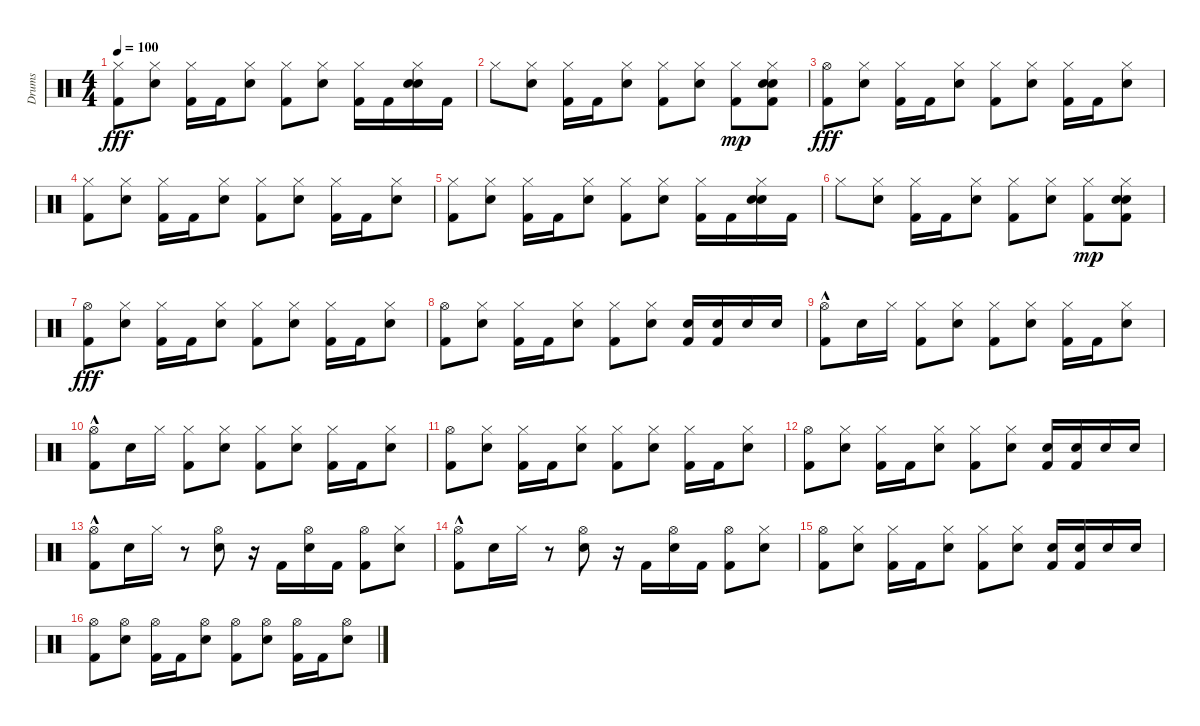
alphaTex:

\track ("Drums" "Drums") {instrument percussion}
\staff {score}
\articulation defaults
\ts (4 4)
\tempo 100
\clef neutral
\ks c
("Kick (hit) 2" "Hi-Hat (closed)").8{dy fff} ("Hi-Hat (closed)" "Electric Snare (hit)").8 ("Hi-Hat (closed)" "Kick (hit) 2").16 "Kick (hit) 2".16 ("Hi-Hat (closed)" "Electric Snare (hit)").8 ("Kick (hit) 2" "Hi-Hat (closed)").8 ("Hi-Hat (closed)" "Electric Snare (hit)").8 ("Kick (hit) 2" "Hi-Hat (closed)").16 "Kick (hit) 2".16 ("Hi-Hat (closed)" "Electric Snare (hit)" "Snare (hit) 2").16 "Kick (hit) 2".16 |
"Hi-Hat (closed)".8 ("Hi-Hat (closed)" "Electric Snare (hit)").8 ("Hi-Hat (closed)" "Kick (hit) 2").16 "Kick (hit) 2".16 ("Hi-Hat (closed)" "Electric Snare (hit)").8 ("Kick (hit) 2" "Hi-Hat (closed)").8 ("Hi-Hat (closed)" "Electric Snare (hit)").8 ("Hi-Hat (closed)" "Kick (hit) 2").8{dy mp} ("Hi-Hat (closed)" "Electric Snare (hit)" "Snare (hit) 2" "Kick (hit) 2").8 |
("Kick (hit) 2" "Hi-Hat (open)").8{dy fff} ("Hi-Hat (closed)" "Electric Snare (hit)").8 ("Hi-Hat (closed)" "Kick (hit) 2").16 "Kick (hit) 2".16 ("Hi-Hat (closed)" "Electric Snare (hit)").8 ("Kick (hit) 2" "Hi-Hat (closed)").8 ("Hi-Hat (closed)" "Electric Snare (hit)").8 ("Kick (hit) 2" "Hi-Hat (closed)").16 "Kick (hit) 2".16 ("Hi-Hat (closed)" "Electric Snare (hit)").8 |
("Kick (hit) 2" "Hi-Hat (closed)").8 ("Hi-Hat (closed)" "Electric Snare (hit)").8 ("Hi-Hat (closed)" "Kick (hit) 2").16 "Kick (hit) 2".16 ("Hi-Hat (closed)" "Electric Snare (hit)").8 ("Kick (hit) 2" "Hi-Hat (closed)").8 ("Hi-Hat (closed)" "Electric Snare (hit)").8 ("Kick (hit) 2" "Hi-Hat (closed)").16 "Kick (hit) 2".16 ("Hi-Hat (closed)" "Electric Snare (hit)").8 |
("Kick (hit) 2" "Hi-Hat (closed)").8 ("Hi-Hat (closed)" "Electric Snare (hit)").8 ("Hi-Hat (closed)" "Kick (hit) 2").16 "Kick (hit) 2".16 ("Hi-Hat (closed)" "Electric Snare (hit)").8 ("Kick (hit) 2" "Hi-Hat (closed)").8 ("Hi-Hat (closed)" "Electric Snare (hit)").8 ("Kick (hit) 2" "Hi-Hat (closed)").16 "Kick (hit) 2".16 ("Hi-Hat (closed)" "Electric Snare (hit)" "Snare (hit) 2").16 "Kick (hit) 2".16 |
"Hi-Hat (closed)".8 ("Hi-Hat (closed)" "Electric Snare (hit)").8 ("Hi-Hat (closed)" "Kick (hit) 2").16 "Kick (hit) 2".16 ("Hi-Hat (closed)" "Electric Snare (hit)").8 ("Kick (hit) 2" "Hi-Hat (closed)").8 ("Hi-Hat (closed)" "Electric Snare (hit)").8 ("Hi-Hat (closed)" "Kick (hit) 2").8{dy mp} ("Hi-Hat (closed)" "Electric Snare (hit)" "Snare (hit) 2" "Kick (hit) 2").8 |
("Kick (hit) 2" "Hi-Hat (open)").8{dy fff} ("Hi-Hat (closed)" "Electric Snare (hit)").8 ("Hi-Hat (closed)" "Kick (hit) 2").16 "Kick (hit) 2".16 ("Hi-Hat (closed)" "Electric Snare (hit)").8 ("Kick (hit) 2" "Hi-Hat (closed)").8 ("Hi-Hat (closed)" "Electric Snare (hit)").8 ("Kick (hit) 2" "Hi-Hat (closed)").16 "Kick (hit) 2".16 ("Hi-Hat (closed)" "Electric Snare (hit)").8 |
("Kick (hit) 2" "Hi-Hat (open)").8 ("Hi-Hat (closed)" "Electric Snare (hit)").8 ("Hi-Hat (closed)" "Kick (hit) 2").16 "Kick (hit) 2".16 ("Hi-Hat (closed)" "Electric Snare (hit)").8 ("Kick (hit) 2" "Hi-Hat (closed)").8 ("Hi-Hat (closed)" "Electric Snare (hit)").8 ("Kick (hit) 2" "Electric Snare (hit)").16 ("Kick (hit) 2" "Electric Snare (hit)").16 "Electric Snare (hit)".16 "Electric Snare (hit)".16 |
("Hi-Hat (open)" "Kick (hit) 2"{hac}).8 "Electric Snare (hit)".16 "Hi-Hat (closed)".16 ("Hi-Hat (closed)" "Kick (hit) 2").8 ("Hi-Hat (closed)" "Electric Snare (hit)").8 ("Kick (hit) 2" "Hi-Hat (closed)").8 ("Hi-Hat (closed)" "Electric Snare (hit)").8 ("Kick (hit) 2" "Hi-Hat (closed)").16 "Kick (hit) 2".16 ("Hi-Hat (closed)" "Electric Snare (hit)").8 |
("Hi-Hat (open)" "Kick (hit) 2"{hac}).8 "Electric Snare (hit)".16 "Hi-Hat (closed)".16 ("Hi-Hat (closed)" "Kick (hit) 2").8 ("Hi-Hat (closed)" "Electric Snare (hit)").8 ("Kick (hit) 2" "Hi-Hat (closed)").8 ("Hi-Hat (closed)" "Electric Snare (hit)").8 ("Kick (hit) 2" "Hi-Hat (closed)").16 "Kick (hit) 2".16 ("Hi-Hat (closed)" "Electric Snare (hit)").8 |
("Kick (hit) 2" "Hi-Hat (open)").8 ("Hi-Hat (closed)" "Electric Snare (hit)").8 ("Hi-Hat (closed)" "Kick (hit) 2").16 "Kick (hit) 2".16 ("Hi-Hat (closed)" "Electric Snare (hit)").8 ("Kick (hit) 2" "Hi-Hat (closed)").8 ("Hi-Hat (closed)" "Electric Snare (hit)").8 ("Kick (hit) 2" "Hi-Hat (closed)").16 "Kick (hit) 2".16 ("Hi-Hat (closed)" "Electric Snare (hit)").8 |
("Kick (hit) 2" "Hi-Hat (open)").8 ("Hi-Hat (closed)" "Electric Snare (hit)").8 ("Hi-Hat (closed)" "Kick (hit) 2").16 "Kick (hit) 2".16 ("Hi-Hat (closed)" "Electric Snare (hit)").8 ("Kick (hit) 2" "Hi-Hat (closed)").8 ("Hi-Hat (closed)" "Electric Snare (hit)").8 ("Kick (hit) 2" "Electric Snare (hit)").16 ("Kick (hit) 2" "Electric Snare (hit)").16 "Electric Snare (hit)".16 "Electric Snare (hit)".16 |
("Hi-Hat (open)" "Kick (hit) 2"{hac}).8 "Electric Snare (hit)".16 "Hi-Hat (closed)".16 r.8 ("Hi-Hat (open)" "Electric Snare (hit)").8 r.16 "Kick (hit) 2".16 ("Hi-Hat (open)" "Electric Snare (hit)").16 "Kick (hit) 2".16 ("Kick (hit) 2" "Hi-Hat (open)").8 ("Hi-Hat (closed)" "Electric Snare (hit)").8 |
("Hi-Hat (open)" "Kick (hit) 2"{hac}).8 "Electric Snare (hit)".16 "Hi-Hat (closed)".16 r.8 ("Hi-Hat (open)" "Electric Snare (hit)").8 r.16 "Kick (hit) 2".16 ("Hi-Hat (open)" "Electric Snare (hit)").16 "Kick (hit) 2".16 ("Kick (hit) 2" "Hi-Hat (open)").8 ("Hi-Hat (closed)" "Electric Snare (hit)").8 |
("Kick (hit) 2" "Hi-Hat (open)").8 ("Hi-Hat (closed)" "Electric Snare (hit)").8 ("Hi-Hat (closed)" "Kick (hit) 2").16 "Kick (hit) 2".16 ("Hi-Hat (closed)" "Electric Snare (hit)").8 ("Kick (hit) 2" "Hi-Hat (closed)").8 ("Hi-Hat (closed)" "Electric Snare (hit)").8 ("Kick (hit) 2" "Electric Snare (hit)").16 ("Kick (hit) 2" "Electric Snare (hit)").16 "Electric Snare (hit)".16 "Electric Snare (hit)".16 |
("Kick (hit) 2" "Hi-Hat (open)").8 ("Hi-Hat (open)" "Electric Snare (hit)").8 ("Hi-Hat (open)" "Kick (hit) 2").16 "Kick (hit) 2".16 ("Hi-Hat (open)" "Electric Snare (hit)").8 ("Kick (hit) 2" "Hi-Hat (open)").8 ("Hi-Hat (open)" "Electric Snare (hit)").8 ("Kick (hit) 2" "Hi-Hat (open)").16 "Kick (hit) 2".16 ("Hi-Hat (open)" "Electric Snare (hit)").8
